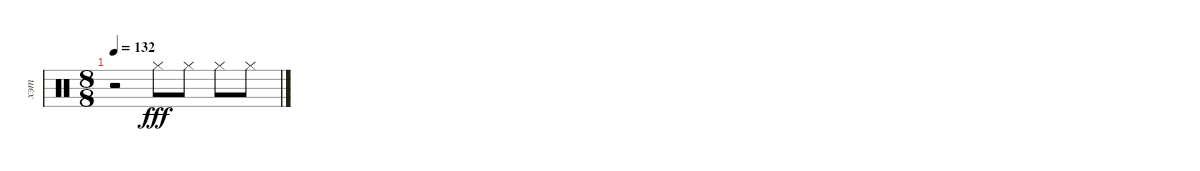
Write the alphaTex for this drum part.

\track ("хэт" "хэт") {instrument percussion}
\staff {score}
\articulation defaults
\ts (8 8)
\tempo 132
\clef neutral
\ks c
r.2{dy fff} "Hi-Hat (closed)".8 "Hi-Hat (closed)".8 "Hi-Hat (closed)".8 "Hi-Hat (closed)".8
